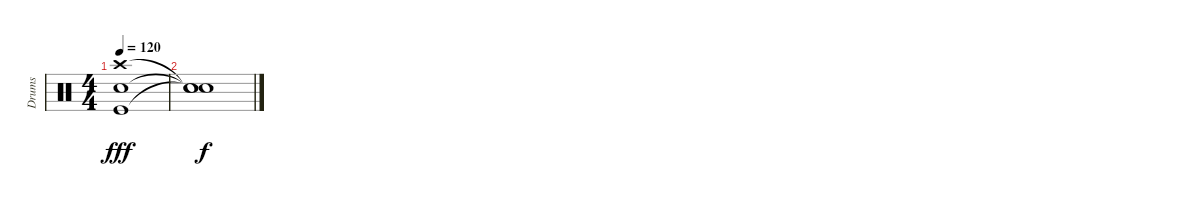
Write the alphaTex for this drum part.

\track ("Drums" "Drums") {instrument percussion}
\staff {score}
\articulation defaults
\ts (4 4)
\tempo 120
\clef neutral
\ks c
("Crash high (hit)" "Snare (hit) 2" "Kick (hit)").1{dy fff} |
("Snare (hit)"{t} "Snare (hit)"{t} "Snare (hit)"{t}).1{dy f}
